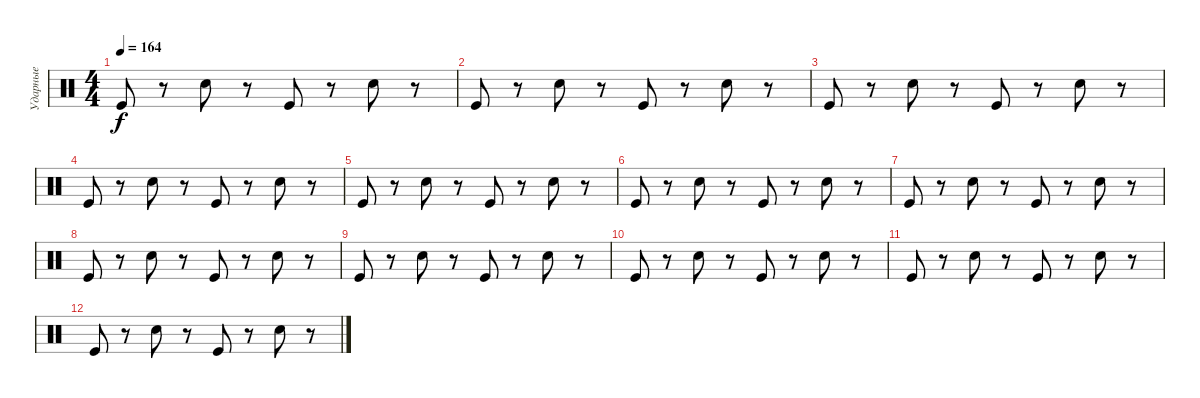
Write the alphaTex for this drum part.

\track ("Ударные" "Ударные") {instrument percussion}
\staff {score}
\articulation defaults
\ts (4 4)
\tempo 164
\clef neutral
\ks c "Kick (hit)".8{dy f}
r.8 "Snare (hit) 2".8 r.8 "Kick (hit)".8 r.8 "Snare (hit) 2".8 r.8 |
"Kick (hit)".8 r.8 "Snare (hit) 2".8 r.8 "Kick (hit)".8 r.8 "Snare (hit) 2".8 r.8 |
"Kick (hit)".8 r.8 "Snare (hit) 2".8 r.8 "Kick (hit)".8 r.8 "Snare (hit) 2".8 r.8 |
"Kick (hit)".8 r.8 "Snare (hit) 2".8 r.8 "Kick (hit)".8 r.8 "Snare (hit) 2".8 r.8 |
"Kick (hit)".8 r.8 "Snare (hit) 2".8 r.8 "Kick (hit)".8 r.8 "Snare (hit) 2".8 r.8 |
"Kick (hit)".8 r.8 "Snare (hit) 2".8 r.8 "Kick (hit)".8 r.8 "Snare (hit) 2".8 r.8 |
"Kick (hit)".8 r.8 "Snare (hit) 2".8 r.8 "Kick (hit)".8 r.8 "Snare (hit) 2".8 r.8 |
"Kick (hit)".8 r.8 "Snare (hit) 2".8 r.8 "Kick (hit)".8 r.8 "Snare (hit) 2".8 r.8 |
"Kick (hit)".8 r.8 "Snare (hit) 2".8 r.8 "Kick (hit)".8 r.8 "Snare (hit) 2".8 r.8 |
"Kick (hit)".8 r.8 "Snare (hit) 2".8 r.8 "Kick (hit)".8 r.8 "Snare (hit) 2".8 r.8 |
"Kick (hit)".8 r.8 "Snare (hit) 2".8 r.8 "Kick (hit)".8 r.8 "Snare (hit) 2".8 r.8 |
"Kick (hit)".8 r.8 "Snare (hit) 2".8 r.8 "Kick (hit)".8 r.8 "Snare (hit) 2".8 r.8
